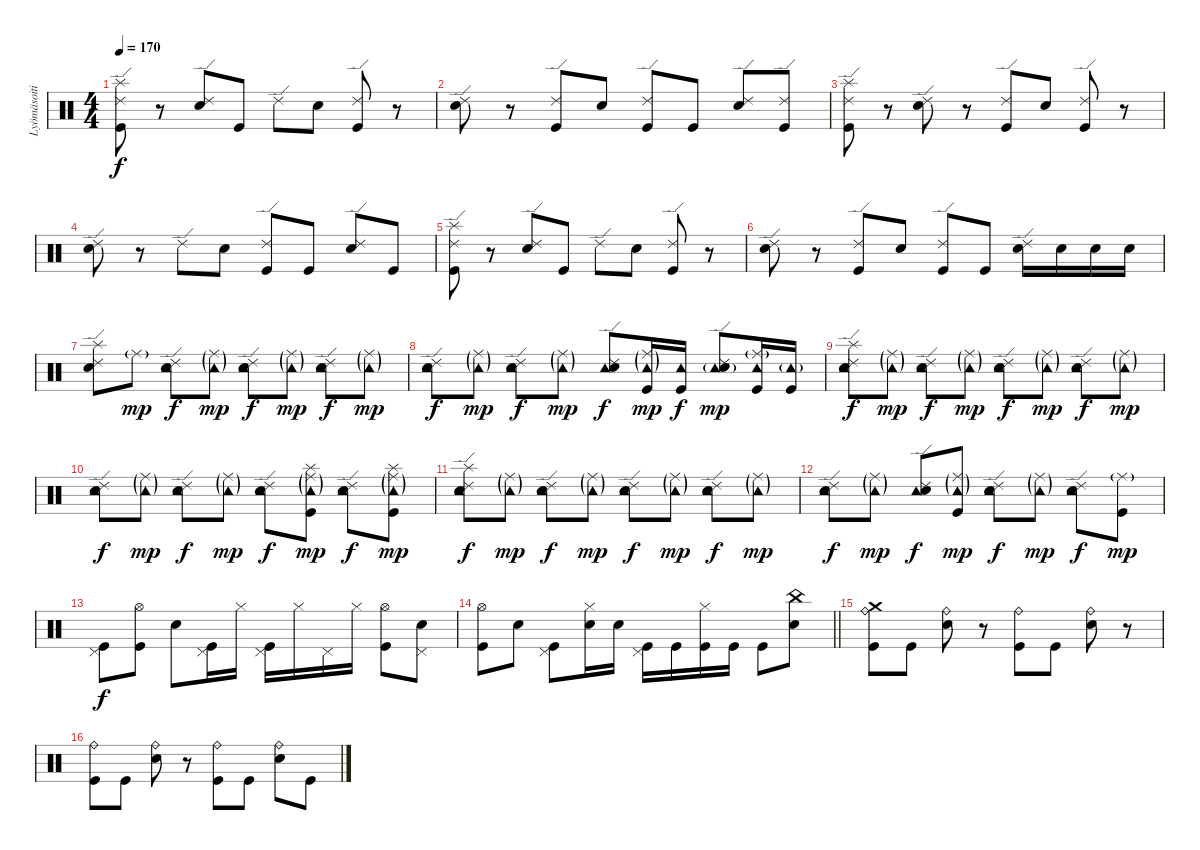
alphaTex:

\track ("Lyömäsoitin" "Lyömäsoiti") {instrument percussion}
\staff {score}
\articulation defaults
\ts (4 4)
\tempo 170
\clef neutral
\ks c
("Splash (hit)" "Ride (edge) 2" "Kick (hit)").8{dy f} r.8 ("Ride (edge) 2" "Snare (hit) 2").8 "Kick (hit)".8 "Ride (edge) 2".8 "Snare (hit) 2".8 ("Ride (edge) 2" "Kick (hit)").8 r.8 |
("Ride (edge) 2" "Snare (hit) 2").8 r.8 ("Ride (edge) 2" "Kick (hit)").8 "Snare (hit) 2".8 ("Ride (edge) 2" "Kick (hit)").8 "Kick (hit)".8 ("Ride (edge) 2" "Snare (hit) 2").8 ("Ride (edge) 2" "Kick (hit)").8 |
("Splash (hit)" "Ride (edge) 2" "Kick (hit)").8 r.8 ("Ride (edge) 2" "Snare (hit) 2").8 r.8 ("Ride (edge) 2" "Kick (hit)").8 "Snare (hit) 2".8 ("Ride (edge) 2" "Kick (hit)").8 r.8 |
("Ride (edge) 2" "Snare (hit) 2").8 r.8 "Ride (edge) 2".8 "Snare (hit) 2".8 ("Ride (edge) 2" "Kick (hit)").8 "Kick (hit)".8 ("Ride (edge) 2" "Snare (hit) 2").8 "Kick (hit)".8 |
("Splash (hit)" "Ride (edge) 2" "Kick (hit)").8 r.8 ("Ride (edge) 2" "Snare (hit) 2").8 "Kick (hit)".8 "Ride (edge) 2".8 "Snare (hit) 2".8 ("Ride (edge) 2" "Kick (hit)").8 r.8 |
("Ride (edge) 2" "Snare (hit) 2").8 r.8 ("Ride (edge) 2" "Kick (hit)").8 "Snare (hit) 2".8 ("Ride (edge) 2" "Kick (hit)").8 "Kick (hit)".8 ("Ride (edge) 2" "Snare (hit) 2").16 "Snare (hit) 2".16 "Snare (hit) 2".16 "Snare (hit) 2".16 |
("Splash (hit)" "Ride (edge) 2" "Snare (hit) 2").8 "Ride (middle)"{g}.8{dy mp} ("Tambourine (hit)" "Ride (edge) 2" "Snare (hit) 2").8{dy f} ("Tambourine (hit)"{g} "Ride (middle)"{g}).8{dy mp} ("Tambourine (hit)" "Ride (edge) 2" "Snare (hit) 2").8{dy f} ("Tambourine (hit)"{g} "Ride (middle)"{g}).8{dy mp} ("Tambourine (hit)" "Ride (edge) 2" "Snare (hit) 2").8{dy f} ("Tambourine (hit)"{g} "Ride (middle)"{g}).8{dy mp} |
("Tambourine (hit)" "Ride (edge) 2" "Snare (hit) 2").8{dy f} ("Tambourine (hit)"{g} "Ride (middle)"{g}).8{dy mp} ("Tambourine (hit)" "Ride (edge) 2" "Snare (hit) 2").8{dy f} ("Tambourine (hit)"{g} "Ride (middle)"{g}).8{dy mp} ("Tambourine (hit)" "Ride (edge) 2" "Snare (hit) 2").8{dy f} ("Tambourine (hit)"{g} "Ride (middle)"{g} "Kick (hit)").16{dy mp} ("Tambourine (hit)" "Kick (hit)").16{dy f} ("Tambourine (hit)"{g} "Ride (edge) 2" "Snare (hit) 2").8{dy mp} ("Tambourine (hit)" "Ride (middle)"{g} "Kick (hit)").16 ("Tambourine (hit)"{g} "Kick (hit)").16 |
("Tambourine (hit)" "Splash (hit)" "Ride (edge) 2" "Snare (hit) 2").8{dy f} ("Tambourine (hit)"{g} "Ride (middle)"{g}).8{dy mp} ("Tambourine (hit)" "Ride (edge) 2" "Snare (hit) 2").8{dy f} ("Tambourine (hit)"{g} "Ride (middle)"{g}).8{dy mp} ("Tambourine (hit)" "Ride (edge) 2" "Snare (hit) 2").8{dy f} ("Tambourine (hit)"{g} "Ride (middle)"{g}).8{dy mp} ("Tambourine (hit)" "Ride (edge) 2" "Snare (hit) 2").8{dy f} ("Tambourine (hit)"{g} "Ride (middle)"{g}).8{dy mp} |
("Tambourine (hit)" "Ride (edge) 2" "Snare (hit) 2").8{dy f} ("Tambourine (hit)"{g} "Ride (middle)"{g}).8{dy mp} ("Tambourine (hit)" "Ride (edge) 2" "Snare (hit) 2").8{dy f} ("Tambourine (hit)"{g} "Ride (middle)"{g}).8{dy mp} ("Tambourine (hit)" "Ride (edge) 2" "Snare (hit) 2").8{dy f} ("Tambourine (hit)"{g} "Splash (hit)" "Ride (middle)"{g} "Kick (hit)").8{dy mp} ("Tambourine (hit)" "Ride (edge) 2" "Snare (hit) 2").8{dy f} ("Tambourine (hit)"{g} "Splash (hit)" "Ride (middle)"{g} "Kick (hit)").8{dy mp} |
("Tambourine (hit)" "Splash (hit)" "Ride (edge) 2" "Snare (hit) 2").8{dy f} ("Tambourine (hit)"{g} "Ride (middle)"{g}).8{dy mp} ("Tambourine (hit)" "Ride (edge) 2" "Snare (hit) 2").8{dy f} ("Tambourine (hit)"{g} "Ride (middle)"{g}).8{dy mp} ("Tambourine (hit)" "Ride (edge) 2" "Snare (hit) 2").8{dy f} ("Tambourine (hit)"{g} "Ride (middle)"{g}).8{dy mp} ("Tambourine (hit)" "Ride (edge) 2" "Snare (hit) 2").8{dy f} ("Tambourine (hit)"{g} "Ride (middle)"{g}).8{dy mp} |
("Tambourine (hit)" "Ride (edge) 2" "Snare (hit) 2").8{dy f} ("Tambourine (hit)"{g} "Ride (middle)"{g}).8{dy mp} ("Tambourine (hit)" "Ride (edge) 2" "Snare (hit) 2").8{dy f} ("Tambourine (hit)"{g} "Ride (middle)"{g} "Kick (hit)").8{dy mp} ("Tambourine (hit)" "Ride (edge) 2" "Snare (hit) 2").8{dy f} ("Tambourine (hit)"{g} "Ride (middle)"{g}).8{dy mp} ("Tambourine (hit)" "Ride (edge) 2" "Snare (hit) 2").8{dy f} ("Ride (middle)"{g} "Kick (hit)").8{dy mp} |
("Pedal Hi-Hat (hit)" "Kick (hit)").8{dy f} ("Hi-Hat (open)" "Kick (hit)").8 "Snare (hit) 2".8 ("Pedal Hi-Hat (hit)" "Kick (hit)").16 "Hi-Hat (closed)".16 ("Pedal Hi-Hat (hit)" "Kick (hit)").16 "Hi-Hat (closed)".16 "Pedal Hi-Hat (hit)".16 "Hi-Hat (closed)".16 ("Hi-Hat (open)" "Kick (hit)").8 ("Pedal Hi-Hat (hit)" "Snare (hit) 2").8 |
\barLineRight lightlight
("Hi-Hat (open)" "Kick (hit)").8 "Snare (hit) 2".8 ("Pedal Hi-Hat (hit)" "Kick (hit)").8 ("Hi-Hat (closed)" "Snare (hit) 2").16 "Snare (hit) 2".16 ("Pedal Hi-Hat (hit)" "Kick (hit)").16 "Kick (hit)".16 ("Hi-Hat (closed)" "Kick (hit)").16 "Kick (hit)".16 "Kick (hit)".8 ("China (hit)" "Snare (hit) 2").8 |
\section ("" "")
("Crash medium (hit)" "Ride (bell)" "Kick (hit)").8 "Kick (hit)".8 ("Ride (bell)" "Snare (hit) 2").8 r.8 ("Ride (bell)" "Kick (hit)").8 "Kick (hit)".8 ("Ride (bell)" "Snare (hit) 2").8 r.8 |
("Ride (bell)" "Kick (hit)").8 "Kick (hit)".8 ("Ride (bell)" "Snare (hit) 2").8 r.8 ("Ride (bell)" "Kick (hit)").8 "Kick (hit)".8 ("Ride (bell)" "Snare (hit) 2").8 "Kick (hit)".8
